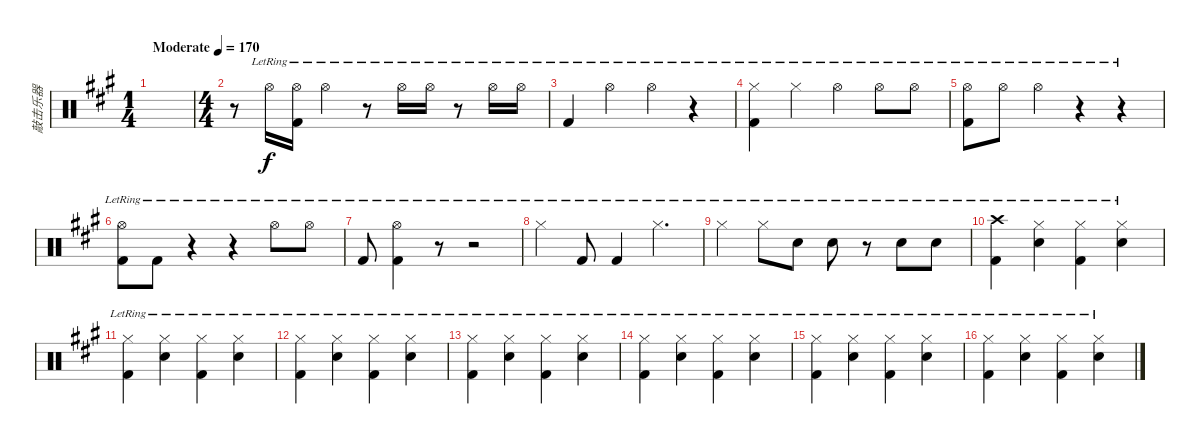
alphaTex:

\track ("敲击乐器" "敲击乐器") {instrument percussion}
\staff {score}
\articulation defaults
\ts (1 4)
\tempo (170 "Moderate")
\clef neutral
\ks a
|
\ts (4 4)
r.8 "Hi-Hat (open)"{lr}.16 ("Hi-Hat (open)"{lr} "Kick (hit) 2"{lr}).16 "Hi-Hat (open)"{lr}.4 r.8 "Hi-Hat (open)"{lr}.16 "Hi-Hat (open)"{lr}.16 r.8 "Hi-Hat (open)"{lr}.16 "Hi-Hat (open)"{lr}.16 |
"Kick (hit) 2"{lr}.4 "Hi-Hat (open)"{lr}.4 "Hi-Hat (open)"{lr}.4 r.4 |
("Hi-Hat (closed)"{lr} "Kick (hit) 2"{lr}).4 "Hi-Hat (closed)"{lr}.4 "Hi-Hat (open)"{lr}.4 "Hi-Hat (open)"{lr}.8 "Hi-Hat (open)"{lr}.8 |
("Hi-Hat (open)"{lr} "Kick (hit) 2"{lr}).8 "Hi-Hat (open)"{lr}.8 "Hi-Hat (open)"{lr}.4 r.4 r.4 |
("Hi-Hat (open)"{lr} "Kick (hit) 2"{lr}).8 "Kick (hit) 2"{lr}.8 r.4 r.4 "Hi-Hat (open)"{lr}.8 "Hi-Hat (open)"{lr}.8 |
"Kick (hit) 2"{lr}.8 ("Hi-Hat (open)"{lr} "Kick (hit) 2"{lr}).4 r.8 r.2 |
"Hi-Hat (closed)"{lr}.4 "Kick (hit) 2"{lr}.8 "Kick (hit) 2"{lr}.4 "Hi-Hat (closed)"{lr}.4{d} |
"Hi-Hat (closed)"{lr}.4 "Hi-Hat (closed)"{lr}.8 "Snare (hit) 2"{lr}.8 "Snare (hit) 2"{lr}.8 r.8 "Snare (hit) 2"{lr}.8 "Snare (hit) 2"{lr}.8 |
("Crash high (hit)"{lr} "Kick (hit) 2"{lr}).4 ("Hi-Hat (closed)"{lr} "Snare (hit) 2"{lr}).4 ("Hi-Hat (closed)"{lr} "Kick (hit) 2"{lr}).4 ("Hi-Hat (closed)"{lr} "Snare (hit) 2"{lr}).4 |
("Hi-Hat (closed)"{lr} "Kick (hit) 2"{lr}).4 ("Hi-Hat (closed)"{lr} "Snare (hit) 2"{lr}).4 ("Hi-Hat (closed)"{lr} "Kick (hit) 2"{lr}).4 ("Hi-Hat (closed)"{lr} "Snare (hit) 2"{lr}).4 |
("Hi-Hat (closed)"{lr} "Kick (hit) 2"{lr}).4 ("Hi-Hat (closed)"{lr} "Snare (hit) 2"{lr}).4 ("Hi-Hat (closed)"{lr} "Kick (hit) 2"{lr}).4 ("Hi-Hat (closed)"{lr} "Snare (hit) 2"{lr}).4 |
("Hi-Hat (closed)"{lr} "Kick (hit) 2"{lr}).4 ("Hi-Hat (closed)"{lr} "Snare (hit) 2"{lr}).4 ("Hi-Hat (closed)"{lr} "Kick (hit) 2"{lr}).4 ("Hi-Hat (closed)"{lr} "Snare (hit) 2"{lr}).4 |
("Hi-Hat (closed)"{lr} "Kick (hit) 2"{lr}).4 ("Hi-Hat (closed)"{lr} "Snare (hit) 2"{lr}).4 ("Hi-Hat (closed)"{lr} "Kick (hit) 2"{lr}).4 ("Hi-Hat (closed)"{lr} "Snare (hit) 2"{lr}).4 |
("Hi-Hat (closed)"{lr} "Kick (hit) 2"{lr}).4 ("Hi-Hat (closed)"{lr} "Snare (hit) 2"{lr}).4 ("Hi-Hat (closed)"{lr} "Kick (hit) 2"{lr}).4 ("Hi-Hat (closed)"{lr} "Snare (hit) 2"{lr}).4 |
("Hi-Hat (closed)"{lr} "Kick (hit) 2"{lr}).4 ("Hi-Hat (closed)"{lr} "Snare (hit) 2"{lr}).4 ("Hi-Hat (closed)"{lr} "Kick (hit) 2"{lr}).4 ("Hi-Hat (closed)"{lr} "Snare (hit) 2"{lr}).4
